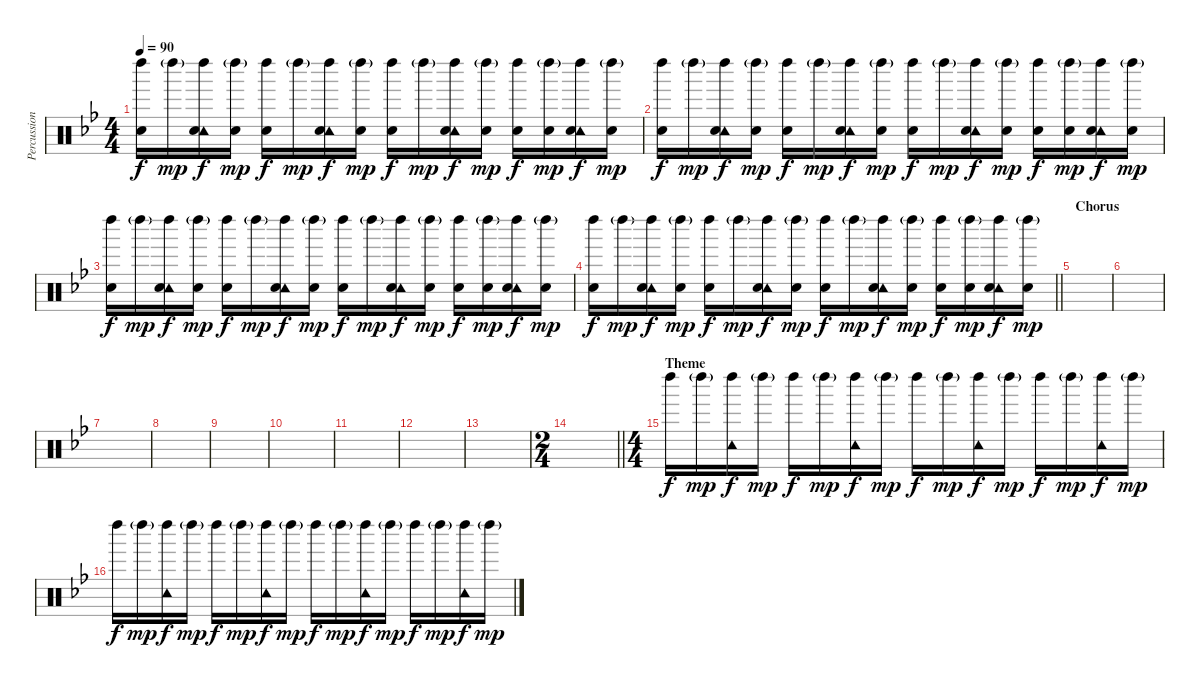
\track ("Percussion" "Percussion") {instrument percussion}
\staff {score}
\articulation defaults
\ts (4 4)
\tempo 90
\clef neutral
\ks bb
("Left Maraca (hit)" "Snare (hit) 2").16{dy f} "Left Maraca (hit)"{g}.16{dy mp} ("Left Maraca (hit)" "Tambourine (hit)" "Snare (hit) 2").16{dy f} ("Left Maraca (hit)"{g} "Snare (hit) 2").16{dy mp} ("Left Maraca (hit)" "Snare (hit) 2").16{dy f} "Left Maraca (hit)"{g}.16{dy mp} ("Left Maraca (hit)" "Tambourine (hit)" "Snare (hit) 2").16{dy f} ("Left Maraca (hit)"{g} "Snare (hit) 2").16{dy mp} ("Left Maraca (hit)" "Snare (hit) 2").16{dy f} "Left Maraca (hit)"{g}.16{dy mp} ("Left Maraca (hit)" "Tambourine (hit)" "Snare (hit) 2").16{dy f} ("Left Maraca (hit)"{g} "Snare (hit) 2").16{dy mp} ("Left Maraca (hit)" "Snare (hit) 2").16{dy f} ("Left Maraca (hit)"{g} "Snare (hit) 2").16{dy mp} ("Left Maraca (hit)" "Tambourine (hit)" "Snare (hit) 2").16{dy f} ("Left Maraca (hit)"{g} "Snare (hit) 2").16{dy mp} |
("Left Maraca (hit)" "Snare (hit) 2").16{dy f} "Left Maraca (hit)"{g}.16{dy mp} ("Left Maraca (hit)" "Tambourine (hit)" "Snare (hit) 2").16{dy f} ("Left Maraca (hit)"{g} "Snare (hit) 2").16{dy mp} ("Left Maraca (hit)" "Snare (hit) 2").16{dy f} "Left Maraca (hit)"{g}.16{dy mp} ("Left Maraca (hit)" "Tambourine (hit)" "Snare (hit) 2").16{dy f} ("Left Maraca (hit)"{g} "Snare (hit) 2").16{dy mp} ("Left Maraca (hit)" "Snare (hit) 2").16{dy f} "Left Maraca (hit)"{g}.16{dy mp} ("Left Maraca (hit)" "Tambourine (hit)" "Snare (hit) 2").16{dy f} ("Left Maraca (hit)"{g} "Snare (hit) 2").16{dy mp} ("Left Maraca (hit)" "Snare (hit) 2").16{dy f} ("Left Maraca (hit)"{g} "Snare (hit) 2").16{dy mp} ("Left Maraca (hit)" "Tambourine (hit)" "Snare (hit) 2").16{dy f} ("Left Maraca (hit)"{g} "Snare (hit) 2").16{dy mp} |
("Left Maraca (hit)" "Snare (hit) 2").16{dy f} "Left Maraca (hit)"{g}.16{dy mp} ("Left Maraca (hit)" "Tambourine (hit)" "Snare (hit) 2").16{dy f} ("Left Maraca (hit)"{g} "Snare (hit) 2").16{dy mp} ("Left Maraca (hit)" "Snare (hit) 2").16{dy f} "Left Maraca (hit)"{g}.16{dy mp} ("Left Maraca (hit)" "Tambourine (hit)" "Snare (hit) 2").16{dy f} ("Left Maraca (hit)"{g} "Snare (hit) 2").16{dy mp} ("Left Maraca (hit)" "Snare (hit) 2").16{dy f} "Left Maraca (hit)"{g}.16{dy mp} ("Left Maraca (hit)" "Tambourine (hit)" "Snare (hit) 2").16{dy f} ("Left Maraca (hit)"{g} "Snare (hit) 2").16{dy mp} ("Left Maraca (hit)" "Snare (hit) 2").16{dy f} ("Left Maraca (hit)"{g} "Snare (hit) 2").16{dy mp} ("Left Maraca (hit)" "Tambourine (hit)" "Snare (hit) 2").16{dy f} ("Left Maraca (hit)"{g} "Snare (hit) 2").16{dy mp} |
\barLineRight lightlight
("Left Maraca (hit)" "Snare (hit) 2").16{dy f} "Left Maraca (hit)"{g}.16{dy mp} ("Left Maraca (hit)" "Tambourine (hit)" "Snare (hit) 2").16{dy f} ("Left Maraca (hit)"{g} "Snare (hit) 2").16{dy mp} ("Left Maraca (hit)" "Snare (hit) 2").16{dy f} "Left Maraca (hit)"{g}.16{dy mp} ("Left Maraca (hit)" "Tambourine (hit)" "Snare (hit) 2").16{dy f} ("Left Maraca (hit)"{g} "Snare (hit) 2").16{dy mp} ("Left Maraca (hit)" "Snare (hit) 2").16{dy f} "Left Maraca (hit)"{g}.16{dy mp} ("Left Maraca (hit)" "Tambourine (hit)" "Snare (hit) 2").16{dy f} ("Left Maraca (hit)"{g} "Snare (hit) 2").16{dy mp} ("Left Maraca (hit)" "Snare (hit) 2").16{dy f} ("Left Maraca (hit)"{g} "Snare (hit) 2").16{dy mp} ("Left Maraca (hit)" "Tambourine (hit)" "Snare (hit) 2").16{dy f} ("Left Maraca (hit)"{g} "Snare (hit) 2").16{dy mp} |
\section ("" "Chorus")
|
|
|
|
|
|
|
|
|
\ts (2 4)
\barLineRight lightlight
|
\ts (4 4)
\section ("" "Theme")
"Left Maraca (hit)".16{dy f} "Left Maraca (hit)"{g}.16{dy mp} ("Left Maraca (hit)" "Tambourine (hit)").16{dy f} "Left Maraca (hit)"{g}.16{dy mp} "Left Maraca (hit)".16{dy f} "Left Maraca (hit)"{g}.16{dy mp} ("Left Maraca (hit)" "Tambourine (hit)").16{dy f} "Left Maraca (hit)"{g}.16{dy mp} "Left Maraca (hit)".16{dy f} "Left Maraca (hit)"{g}.16{dy mp} ("Left Maraca (hit)" "Tambourine (hit)").16{dy f} "Left Maraca (hit)"{g}.16{dy mp} "Left Maraca (hit)".16{dy f} "Left Maraca (hit)"{g}.16{dy mp} ("Left Maraca (hit)" "Tambourine (hit)").16{dy f} "Left Maraca (hit)"{g}.16{dy mp} |
"Left Maraca (hit)".16{dy f} "Left Maraca (hit)"{g}.16{dy mp} ("Left Maraca (hit)" "Tambourine (hit)").16{dy f} "Left Maraca (hit)"{g}.16{dy mp} "Left Maraca (hit)".16{dy f} "Left Maraca (hit)"{g}.16{dy mp} ("Left Maraca (hit)" "Tambourine (hit)").16{dy f} "Left Maraca (hit)"{g}.16{dy mp} "Left Maraca (hit)".16{dy f} "Left Maraca (hit)"{g}.16{dy mp} ("Left Maraca (hit)" "Tambourine (hit)").16{dy f} "Left Maraca (hit)"{g}.16{dy mp} "Left Maraca (hit)".16{dy f} "Left Maraca (hit)"{g}.16{dy mp} ("Left Maraca (hit)" "Tambourine (hit)").16{dy f} "Left Maraca (hit)"{g}.16{dy mp}
